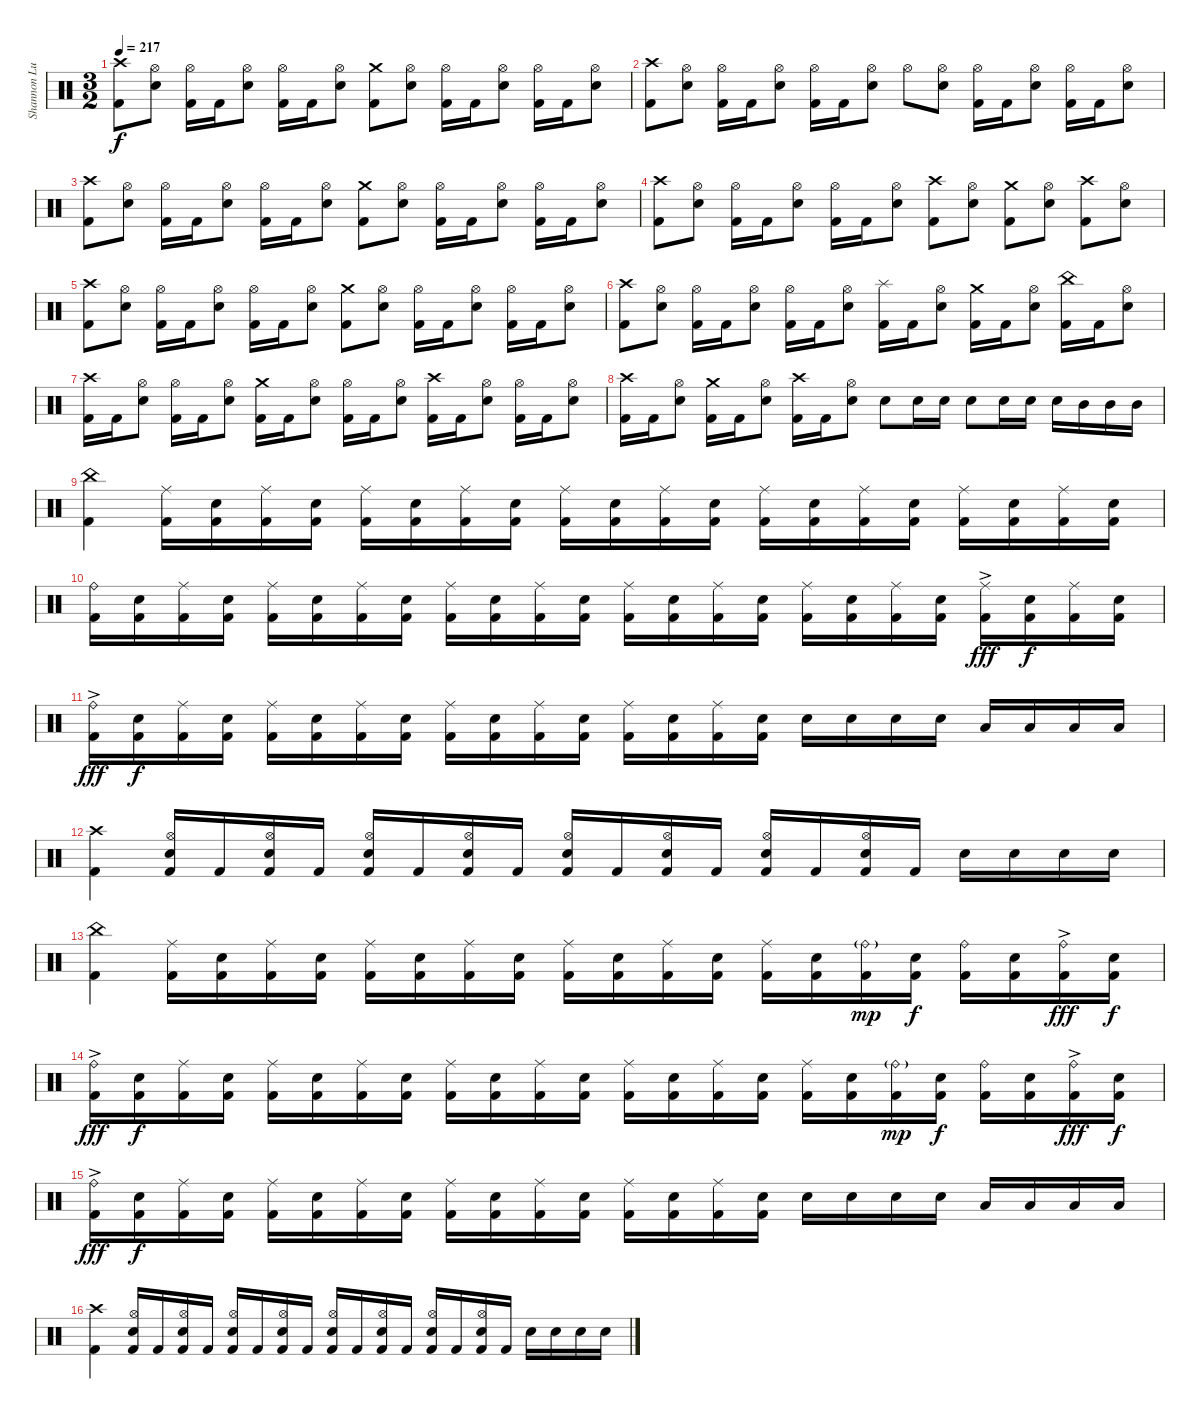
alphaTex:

\track ("Shannon Lucas [Drums (Since 2007)]" "Shannon Lu") {instrument percussion}
\staff {score}
\articulation defaults
\ts (3 2)
\tempo 217
\clef neutral
\ks c
("Crash high (hit)" "Kick (hit) 2").8{dy f} ("Hi-Hat (open)" "Snare (hit) 2").8 ("Hi-Hat (open)" "Kick (hit) 2").16 "Kick (hit) 2".16 ("Hi-Hat (open)" "Snare (hit) 2").8 ("Hi-Hat (open)" "Kick (hit) 2").16 "Kick (hit) 2".16 ("Hi-Hat (open)" "Snare (hit) 2").8 ("Crash medium (hit)" "Kick (hit) 2").8 ("Hi-Hat (open)" "Snare (hit) 2").8 ("Hi-Hat (open)" "Kick (hit) 2").16 "Kick (hit) 2".16 ("Hi-Hat (open)" "Snare (hit) 2").8 ("Hi-Hat (open)" "Kick (hit) 2").16 "Kick (hit) 2".16 ("Hi-Hat (open)" "Snare (hit) 2").8 |
("Crash high (hit)" "Kick (hit) 2").8 ("Hi-Hat (open)" "Snare (hit) 2").8 ("Hi-Hat (open)" "Kick (hit) 2").16 "Kick (hit) 2".16 ("Hi-Hat (open)" "Snare (hit) 2").8 ("Hi-Hat (open)" "Kick (hit) 2").16 "Kick (hit) 2".16 ("Hi-Hat (open)" "Snare (hit) 2").8 "Hi-Hat (open)".8 ("Hi-Hat (open)" "Snare (hit) 2").8 ("Hi-Hat (open)" "Kick (hit) 2").16 "Kick (hit) 2".16 ("Hi-Hat (open)" "Snare (hit) 2").8 ("Hi-Hat (open)" "Kick (hit) 2").16 "Kick (hit) 2".16 ("Hi-Hat (open)" "Snare (hit) 2").8 |
("Crash high (hit)" "Kick (hit) 2").8 ("Hi-Hat (open)" "Snare (hit) 2").8 ("Hi-Hat (open)" "Kick (hit) 2").16 "Kick (hit) 2".16 ("Hi-Hat (open)" "Snare (hit) 2").8 ("Hi-Hat (open)" "Kick (hit) 2").16 "Kick (hit) 2".16 ("Hi-Hat (open)" "Snare (hit) 2").8 ("Crash medium (hit)" "Kick (hit) 2").8 ("Hi-Hat (open)" "Snare (hit) 2").8 ("Hi-Hat (open)" "Kick (hit) 2").16 "Kick (hit) 2".16 ("Hi-Hat (open)" "Snare (hit) 2").8 ("Hi-Hat (open)" "Kick (hit) 2").16 "Kick (hit) 2".16 ("Hi-Hat (open)" "Snare (hit) 2").8 |
("Crash high (hit)" "Kick (hit) 2").8 ("Hi-Hat (open)" "Snare (hit) 2").8 ("Hi-Hat (open)" "Kick (hit) 2").16 "Kick (hit) 2".16 ("Hi-Hat (open)" "Snare (hit) 2").8 ("Hi-Hat (open)" "Kick (hit) 2").16 "Kick (hit) 2".16 ("Hi-Hat (open)" "Snare (hit) 2").8 ("Crash high (hit)" "Kick (hit) 2").8 ("Hi-Hat (open)" "Snare (hit) 2").8 ("Crash medium (hit)" "Kick (hit) 2").8 ("Hi-Hat (open)" "Snare (hit) 2").8 ("Crash high (hit)" "Kick (hit) 2").8 ("Hi-Hat (open)" "Snare (hit) 2").8 |
("Crash high (hit)" "Kick (hit) 2").8 ("Hi-Hat (open)" "Snare (hit) 2").8 ("Hi-Hat (open)" "Kick (hit) 2").16 "Kick (hit) 2".16 ("Hi-Hat (open)" "Snare (hit) 2").8 ("Hi-Hat (open)" "Kick (hit) 2").16 "Kick (hit) 2".16 ("Hi-Hat (open)" "Snare (hit) 2").8 ("Crash medium (hit)" "Kick (hit) 2").8 ("Hi-Hat (open)" "Snare (hit) 2").8 ("Hi-Hat (open)" "Kick (hit) 2").16 "Kick (hit) 2".16 ("Hi-Hat (open)" "Snare (hit) 2").8 ("Hi-Hat (open)" "Kick (hit) 2").16 "Kick (hit) 2".16 ("Hi-Hat (open)" "Snare (hit) 2").8 |
("Crash high (hit)" "Kick (hit) 2").8 ("Hi-Hat (open)" "Snare (hit) 2").8 ("Hi-Hat (open)" "Kick (hit) 2").16 "Kick (hit) 2".16 ("Hi-Hat (open)" "Snare (hit) 2").8 ("Hi-Hat (open)" "Kick (hit) 2").16 "Kick (hit) 2".16 ("Hi-Hat (open)" "Snare (hit) 2").8 ("Splash (hit)" "Kick (hit) 2").16 "Kick (hit) 2".16 ("Hi-Hat (open)" "Snare (hit) 2").8 ("Crash medium (hit)" "Kick (hit) 2").16 "Kick (hit) 2".16 ("Hi-Hat (open)" "Snare (hit) 2").8 ("China (hit)" "Kick (hit) 2").16 "Kick (hit) 2".16 ("Hi-Hat (open)" "Snare (hit) 2").8 |
("Crash high (hit)" "Kick (hit) 2").16 "Kick (hit) 2".16 ("Hi-Hat (open)" "Snare (hit) 2").8 ("Hi-Hat (open)" "Kick (hit) 2").16 "Kick (hit) 2".16 ("Hi-Hat (open)" "Snare (hit) 2").8 ("Crash medium (hit)" "Kick (hit) 2").16 "Kick (hit) 2".16 ("Hi-Hat (open)" "Snare (hit) 2").8 ("Hi-Hat (open)" "Kick (hit) 2").16 "Kick (hit) 2".16 ("Hi-Hat (open)" "Snare (hit) 2").8 ("Crash high (hit)" "Kick (hit) 2").16 "Kick (hit) 2".16 ("Hi-Hat (open)" "Snare (hit) 2").8 ("Hi-Hat (open)" "Kick (hit) 2").16 "Kick (hit) 2".16 ("Hi-Hat (open)" "Snare (hit) 2").8 |
("Crash high (hit)" "Kick (hit) 2").16 "Kick (hit) 2".16 ("Hi-Hat (open)" "Snare (hit) 2").8 ("Crash medium (hit)" "Kick (hit) 2").16 "Kick (hit) 2".16 ("Hi-Hat (open)" "Snare (hit) 2").8 ("Crash high (hit)" "Kick (hit) 2").16 "Kick (hit) 2".16 ("Hi-Hat (open)" "Snare (hit) 2").8 "Snare (hit) 2".8 "Snare (hit) 2".16 "Snare (hit) 2".16 "Snare (hit) 2".8 "Snare (hit) 2".16 "Snare (hit) 2".16 "Snare (hit) 2".16 "Mid Tom (hit)".16 "Mid Tom (hit)".16 "Mid Tom (hit)".16 |
("China (hit)" "Kick (hit) 2").4 ("Ride (middle)" "Kick (hit) 2").16 ("Snare (hit) 2" "Kick (hit) 2").16 ("Ride (middle)" "Kick (hit) 2").16 ("Snare (hit) 2" "Kick (hit) 2").16 ("Ride (middle)" "Kick (hit) 2").16 ("Snare (hit) 2" "Kick (hit) 2").16 ("Ride (middle)" "Kick (hit) 2").16 ("Snare (hit) 2" "Kick (hit) 2").16 ("Ride (middle)" "Kick (hit) 2").16 ("Snare (hit) 2" "Kick (hit) 2").16 ("Ride (middle)" "Kick (hit) 2").16 ("Snare (hit) 2" "Kick (hit) 2").16 ("Ride (middle)" "Kick (hit) 2").16 ("Snare (hit) 2" "Kick (hit) 2").16 ("Ride (middle)" "Kick (hit) 2").16 ("Snare (hit) 2" "Kick (hit) 2").16 ("Ride (middle)" "Kick (hit) 2").16 ("Snare (hit) 2" "Kick (hit) 2").16 ("Ride (middle)" "Kick (hit) 2").16 ("Snare (hit) 2" "Kick (hit) 2").16 |
("Ride (bell)" "Kick (hit) 2").16 ("Snare (hit) 2" "Kick (hit) 2").16 ("Ride (middle)" "Kick (hit) 2").16 ("Snare (hit) 2" "Kick (hit) 2").16 ("Ride (middle)" "Kick (hit) 2").16 ("Snare (hit) 2" "Kick (hit) 2").16 ("Ride (middle)" "Kick (hit) 2").16 ("Snare (hit) 2" "Kick (hit) 2").16 ("Ride (middle)" "Kick (hit) 2").16 ("Snare (hit) 2" "Kick (hit) 2").16 ("Ride (middle)" "Kick (hit) 2").16 ("Snare (hit) 2" "Kick (hit) 2").16 ("Ride (middle)" "Kick (hit) 2").16 ("Snare (hit) 2" "Kick (hit) 2").16 ("Ride (middle)" "Kick (hit) 2").16 ("Snare (hit) 2" "Kick (hit) 2").16 ("Ride (middle)" "Kick (hit) 2").16 ("Snare (hit) 2" "Kick (hit) 2").16 ("Ride (middle)" "Kick (hit) 2").16 ("Snare (hit) 2" "Kick (hit) 2").16 ("Ride (middle)"{ac} "Kick (hit) 2").16{dy fff} ("Snare (hit) 2" "Kick (hit) 2").16{dy f} ("Ride (middle)" "Kick (hit) 2").16 ("Snare (hit) 2" "Kick (hit) 2").16 |
("Ride (bell)"{ac} "Kick (hit) 2").16{dy fff} ("Snare (hit) 2" "Kick (hit) 2").16{dy f} ("Ride (middle)" "Kick (hit) 2").16 ("Snare (hit) 2" "Kick (hit) 2").16 ("Ride (middle)" "Kick (hit) 2").16 ("Snare (hit) 2" "Kick (hit) 2").16 ("Ride (middle)" "Kick (hit) 2").16 ("Snare (hit) 2" "Kick (hit) 2").16 ("Ride (middle)" "Kick (hit) 2").16 ("Snare (hit) 2" "Kick (hit) 2").16 ("Ride (middle)" "Kick (hit) 2").16 ("Snare (hit) 2" "Kick (hit) 2").16 ("Ride (middle)" "Kick (hit) 2").16 ("Snare (hit) 2" "Kick (hit) 2").16 ("Ride (middle)" "Kick (hit) 2").16 ("Snare (hit) 2" "Kick (hit) 2").16 "Snare (hit) 2".16 "Snare (hit) 2".16 "Snare (hit) 2".16 "Snare (hit) 2".16 "Low Tom (hit)".16 "Low Tom (hit)".16 "Low Tom (hit)".16 "Low Tom (hit)".16 |
("Crash high (hit)" "Kick (hit) 2").4 ("Hi-Hat (open)" "Snare (hit) 2" "Kick (hit) 2").16 "Kick (hit) 2".16 ("Hi-Hat (open)" "Snare (hit) 2" "Kick (hit) 2").16 "Kick (hit) 2".16 ("Hi-Hat (open)" "Snare (hit) 2" "Kick (hit) 2").16 "Kick (hit) 2".16 ("Hi-Hat (open)" "Snare (hit) 2" "Kick (hit) 2").16 "Kick (hit) 2".16 ("Hi-Hat (open)" "Snare (hit) 2" "Kick (hit) 2").16 "Kick (hit) 2".16 ("Hi-Hat (open)" "Snare (hit) 2" "Kick (hit) 2").16 "Kick (hit) 2".16 ("Hi-Hat (open)" "Snare (hit) 2" "Kick (hit) 2").16 "Kick (hit) 2".16 ("Hi-Hat (open)" "Snare (hit) 2" "Kick (hit) 2").16 "Kick (hit) 2".16 "Snare (hit) 2".16 "Snare (hit) 2".16 "Snare (hit) 2".16 "Snare (hit) 2".16 |
("China (hit)" "Kick (hit) 2").4 ("Ride (middle)" "Kick (hit) 2").16 ("Snare (hit) 2" "Kick (hit) 2").16 ("Ride (middle)" "Kick (hit) 2").16 ("Snare (hit) 2" "Kick (hit) 2").16 ("Ride (middle)" "Kick (hit) 2").16 ("Snare (hit) 2" "Kick (hit) 2").16 ("Ride (middle)" "Kick (hit) 2").16 ("Snare (hit) 2" "Kick (hit) 2").16 ("Ride (middle)" "Kick (hit) 2").16 ("Snare (hit) 2" "Kick (hit) 2").16 ("Ride (middle)" "Kick (hit) 2").16 ("Snare (hit) 2" "Kick (hit) 2").16 ("Ride (middle)" "Kick (hit) 2").16 ("Snare (hit) 2" "Kick (hit) 2").16 ("Ride (bell)"{g} "Kick (hit) 2").16{dy mp} ("Snare (hit) 2" "Kick (hit) 2").16{dy f} ("Ride (bell)" "Kick (hit) 2").16 ("Snare (hit) 2" "Kick (hit) 2").16 ("Ride (bell)"{ac} "Kick (hit) 2").16{dy fff} ("Snare (hit) 2" "Kick (hit) 2").16{dy f} |
("Ride (bell)"{ac} "Kick (hit) 2").16{dy fff} ("Snare (hit) 2" "Kick (hit) 2").16{dy f} ("Ride (middle)" "Kick (hit) 2").16 ("Snare (hit) 2" "Kick (hit) 2").16 ("Ride (middle)" "Kick (hit) 2").16 ("Snare (hit) 2" "Kick (hit) 2").16 ("Ride (middle)" "Kick (hit) 2").16 ("Snare (hit) 2" "Kick (hit) 2").16 ("Ride (middle)" "Kick (hit) 2").16 ("Snare (hit) 2" "Kick (hit) 2").16 ("Ride (middle)" "Kick (hit) 2").16 ("Snare (hit) 2" "Kick (hit) 2").16 ("Ride (middle)" "Kick (hit) 2").16 ("Snare (hit) 2" "Kick (hit) 2").16 ("Ride (middle)" "Kick (hit) 2").16 ("Snare (hit) 2" "Kick (hit) 2").16 ("Ride (middle)" "Kick (hit) 2").16 ("Snare (hit) 2" "Kick (hit) 2").16 ("Ride (bell)"{g} "Kick (hit) 2").16{dy mp} ("Snare (hit) 2" "Kick (hit) 2").16{dy f} ("Ride (bell)" "Kick (hit) 2").16 ("Snare (hit) 2" "Kick (hit) 2").16 ("Ride (bell)"{ac} "Kick (hit) 2").16{dy fff} ("Snare (hit) 2" "Kick (hit) 2").16{dy f} |
("Ride (bell)"{ac} "Kick (hit) 2").16{dy fff} ("Snare (hit) 2" "Kick (hit) 2").16{dy f} ("Ride (middle)" "Kick (hit) 2").16 ("Snare (hit) 2" "Kick (hit) 2").16 ("Ride (middle)" "Kick (hit) 2").16 ("Snare (hit) 2" "Kick (hit) 2").16 ("Ride (middle)" "Kick (hit) 2").16 ("Snare (hit) 2" "Kick (hit) 2").16 ("Ride (middle)" "Kick (hit) 2").16 ("Snare (hit) 2" "Kick (hit) 2").16 ("Ride (middle)" "Kick (hit) 2").16 ("Snare (hit) 2" "Kick (hit) 2").16 ("Ride (middle)" "Kick (hit) 2").16 ("Snare (hit) 2" "Kick (hit) 2").16 ("Ride (middle)" "Kick (hit) 2").16 ("Snare (hit) 2" "Kick (hit) 2").16 "Snare (hit) 2".16 "Snare (hit) 2".16 "Snare (hit) 2".16 "Snare (hit) 2".16 "Low Tom (hit)".16 "Low Tom (hit)".16 "Low Tom (hit)".16 "Low Tom (hit)".16 |
("Crash high (hit)" "Kick (hit) 2").4 ("Hi-Hat (open)" "Snare (hit) 2" "Kick (hit) 2").16 "Kick (hit) 2".16 ("Hi-Hat (open)" "Snare (hit) 2" "Kick (hit) 2").16 "Kick (hit) 2".16 ("Hi-Hat (open)" "Snare (hit) 2" "Kick (hit) 2").16 "Kick (hit) 2".16 ("Hi-Hat (open)" "Snare (hit) 2" "Kick (hit) 2").16 "Kick (hit) 2".16 ("Hi-Hat (open)" "Snare (hit) 2" "Kick (hit) 2").16 "Kick (hit) 2".16 ("Hi-Hat (open)" "Snare (hit) 2" "Kick (hit) 2").16 "Kick (hit) 2".16 ("Hi-Hat (open)" "Snare (hit) 2" "Kick (hit) 2").16 "Kick (hit) 2".16 ("Hi-Hat (open)" "Snare (hit) 2" "Kick (hit) 2").16 "Kick (hit) 2".16 "Snare (hit) 2".16 "Snare (hit) 2".16 "Snare (hit) 2".16 "Snare (hit) 2".16
